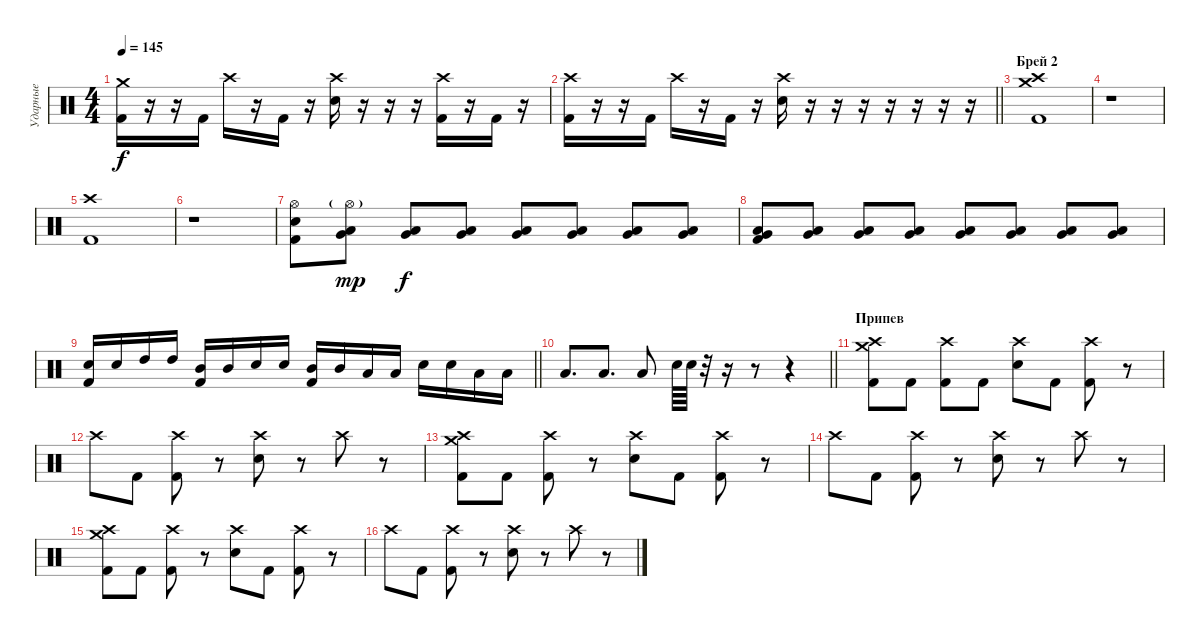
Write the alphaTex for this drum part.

\track ("Ударные" "Ударные") {instrument percussion}
\staff {score}
\articulation defaults
\ts (4 4)
\tempo 145
\clef neutral
\ks c
("Crash medium (hit)" "Kick (hit) 2").16{dy f} r.16 r.16 "Kick (hit) 2".16 "Crash high (hit)".16 r.16 "Kick (hit) 2".16 r.16 ("Crash high (hit)" "Electric Snare (hit)").16 r.16 r.16 r.16 ("Crash high (hit)" "Kick (hit) 2").16 r.16 "Kick (hit) 2".16 r.16 |
\barLineRight lightlight
("Crash high (hit)" "Kick (hit) 2").16 r.16 r.16 "Kick (hit) 2".16 "Crash high (hit)".16 r.16 "Kick (hit) 2".16 r.16 ("Crash high (hit)" "Electric Snare (hit)").16 r.16 r.16 r.16 r.16 r.16 r.16 r.16 |
\section ("" "Брей 2")
("Crash medium (hit)" "Crash high (hit)" "Kick (hit) 2").1 |
r.1 |
("Crash high (hit)" "Kick (hit) 2").1 |
r.1 |
("Hi-Hat (open)" "Electric Snare (hit)" "Kick (hit) 2").8 ("Hi-Hat (open)"{g} "Very Low Tom (hit)" "Low Floor Tom (hit)").8{dy mp} ("Very Low Tom (hit)" "Low Floor Tom (hit)").8{dy f} ("Very Low Tom (hit)" "Low Floor Tom (hit)").8 ("Very Low Tom (hit)" "Low Floor Tom (hit)").8 ("Very Low Tom (hit)" "Low Floor Tom (hit)").8 ("Very Low Tom (hit)" "Low Floor Tom (hit)").8 ("Very Low Tom (hit)" "Low Floor Tom (hit)").8 |
("Very Low Tom (hit)" "Low Floor Tom (hit)" "Kick (hit) 2").8 ("Very Low Tom (hit)" "Low Floor Tom (hit)").8 ("Very Low Tom (hit)" "Low Floor Tom (hit)").8 ("Very Low Tom (hit)" "Low Floor Tom (hit)").8 ("Very Low Tom (hit)" "Low Floor Tom (hit)").8 ("Very Low Tom (hit)" "Low Floor Tom (hit)").8 ("Very Low Tom (hit)" "Low Floor Tom (hit)").8 ("Very Low Tom (hit)" "Low Floor Tom (hit)").8 |
\barLineRight lightlight
("Electric Snare (hit)" "Kick (hit) 2").16 "Electric Snare (hit)".16 "High Tom (hit)".16 "High Tom (hit)".16 ("Mid Tom (hit)" "Kick (hit) 2").16 "Mid Tom (hit)".16 "Electric Snare (hit)".16 "Electric Snare (hit)".16 ("Mid Tom (hit)" "Kick (hit) 2").16 "Mid Tom (hit)".16 "Low Tom (hit)".16 "Low Tom (hit)".16 "Electric Snare (hit)".16 "Electric Snare (hit)".16 "Low Tom (hit)".16 "Low Tom (hit)".16 |
\barLineRight lightlight "Low Tom (hit)".8{d} "Low Tom (hit)".8{d} "Low Tom (hit)".8 "Electric Snare (hit)".64 "Electric Snare (hit)".64
r.32 r.16 r.8 r.4 |
\section ("" "Припев")
("Crash medium (hit)" "Crash high (hit)" "Kick (hit) 2").8 "Kick (hit) 2".8 ("Crash high (hit)" "Kick (hit) 2").8 "Kick (hit) 2".8 ("Crash high (hit)" "Electric Snare (hit)").8 "Kick (hit) 2".8 ("Crash high (hit)" "Kick (hit) 2").8 r.8 |
"Crash high (hit)".8 "Kick (hit) 2".8 ("Crash high (hit)" "Kick (hit) 2").8 r.8 ("Crash high (hit)" "Electric Snare (hit)").8 r.8 "Crash high (hit)".8 r.8 |
("Crash medium (hit)" "Crash high (hit)" "Kick (hit) 2").8 "Kick (hit) 2".8 ("Crash high (hit)" "Kick (hit) 2").8 r.8 ("Crash high (hit)" "Electric Snare (hit)").8 "Kick (hit) 2".8 ("Crash high (hit)" "Kick (hit) 2").8 r.8 |
"Crash high (hit)".8 "Kick (hit) 2".8 ("Crash high (hit)" "Kick (hit) 2").8 r.8 ("Crash high (hit)" "Electric Snare (hit)").8 r.8 "Crash high (hit)".8 r.8 |
("Crash medium (hit)" "Crash high (hit)" "Kick (hit) 2").8 "Kick (hit) 2".8 ("Crash high (hit)" "Kick (hit) 2").8 r.8 ("Crash high (hit)" "Electric Snare (hit)").8 "Kick (hit) 2".8 ("Crash high (hit)" "Kick (hit) 2").8 r.8 |
"Crash high (hit)".8 "Kick (hit) 2".8 ("Crash high (hit)" "Kick (hit) 2").8 r.8 ("Crash high (hit)" "Electric Snare (hit)").8 r.8 "Crash high (hit)".8 r.8
